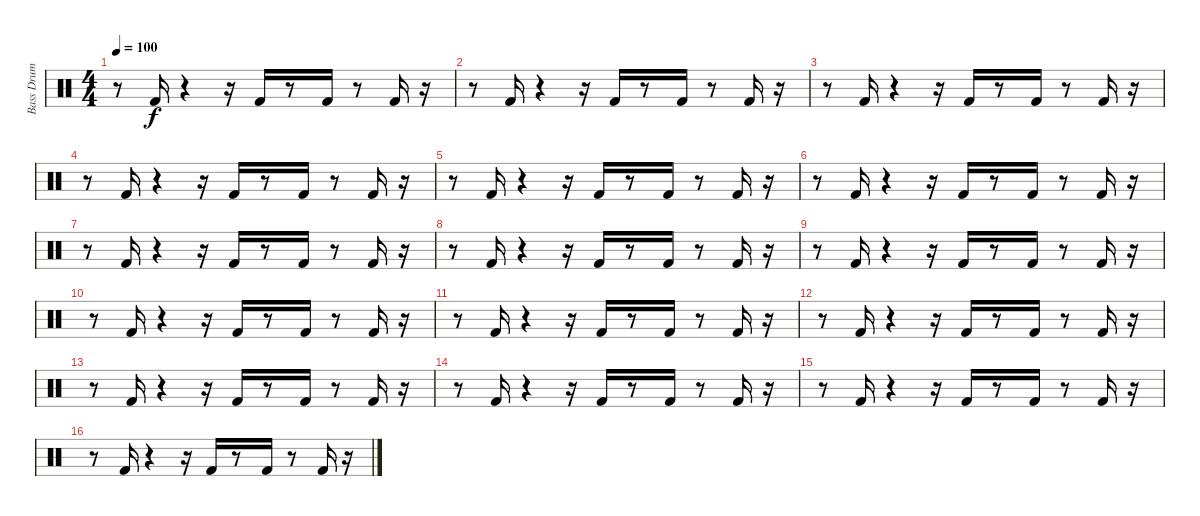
\track ("Bass Drum" "Bass Drum") {instrument percussion}
\staff {score}
\articulation defaults
\ts (4 4)
\tempo 100
\clef neutral
\ks c
r.8{dy f} "Kick (hit) 2".16 r.4 r.16 "Kick (hit) 2".16 r.8 "Kick (hit) 2".16 r.8 "Kick (hit) 2".16 r.16 |
r.8 "Kick (hit) 2".16 r.4 r.16 "Kick (hit) 2".16 r.8 "Kick (hit) 2".16 r.8 "Kick (hit) 2".16 r.16 |
r.8 "Kick (hit) 2".16 r.4 r.16 "Kick (hit) 2".16 r.8 "Kick (hit) 2".16 r.8 "Kick (hit) 2".16 r.16 |
r.8 "Kick (hit) 2".16 r.4 r.16 "Kick (hit) 2".16 r.8 "Kick (hit) 2".16 r.8 "Kick (hit) 2".16 r.16 |
r.8 "Kick (hit) 2".16 r.4 r.16 "Kick (hit) 2".16 r.8 "Kick (hit) 2".16 r.8 "Kick (hit) 2".16 r.16 |
r.8 "Kick (hit) 2".16 r.4 r.16 "Kick (hit) 2".16 r.8 "Kick (hit) 2".16 r.8 "Kick (hit) 2".16 r.16 |
r.8 "Kick (hit) 2".16 r.4 r.16 "Kick (hit) 2".16 r.8 "Kick (hit) 2".16 r.8 "Kick (hit) 2".16 r.16 |
r.8 "Kick (hit) 2".16 r.4 r.16 "Kick (hit) 2".16 r.8 "Kick (hit) 2".16 r.8 "Kick (hit) 2".16 r.16 |
r.8 "Kick (hit) 2".16 r.4 r.16 "Kick (hit) 2".16 r.8 "Kick (hit) 2".16 r.8 "Kick (hit) 2".16 r.16 |
r.8 "Kick (hit) 2".16 r.4 r.16 "Kick (hit) 2".16 r.8 "Kick (hit) 2".16 r.8 "Kick (hit) 2".16 r.16 |
r.8 "Kick (hit) 2".16 r.4 r.16 "Kick (hit) 2".16 r.8 "Kick (hit) 2".16 r.8 "Kick (hit) 2".16 r.16 |
r.8 "Kick (hit) 2".16 r.4 r.16 "Kick (hit) 2".16 r.8 "Kick (hit) 2".16 r.8 "Kick (hit) 2".16 r.16 |
r.8 "Kick (hit) 2".16 r.4 r.16 "Kick (hit) 2".16 r.8 "Kick (hit) 2".16 r.8 "Kick (hit) 2".16 r.16 |
r.8 "Kick (hit) 2".16 r.4 r.16 "Kick (hit) 2".16 r.8 "Kick (hit) 2".16 r.8 "Kick (hit) 2".16 r.16 |
r.8 "Kick (hit) 2".16 r.4 r.16 "Kick (hit) 2".16 r.8 "Kick (hit) 2".16 r.8 "Kick (hit) 2".16 r.16 |
r.8 "Kick (hit) 2".16 r.4 r.16 "Kick (hit) 2".16 r.8 "Kick (hit) 2".16 r.8 "Kick (hit) 2".16 r.16
